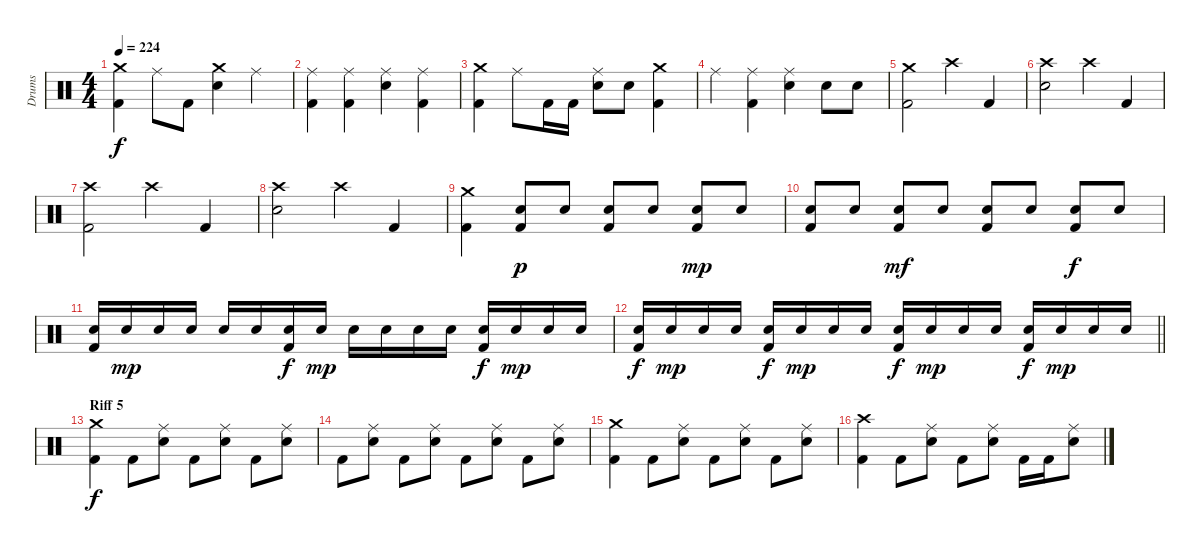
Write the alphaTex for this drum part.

\track ("Drums" "Drums") {instrument percussion}
\staff {score}
\articulation defaults
\ts (4 4)
\tempo 224
\clef neutral
\ks c
("Crash medium (hit)" "Kick (hit) 2").4{dy f} "Ride (middle)".8 "Kick (hit) 2".8 ("Crash medium (hit)" "Electric Snare (hit)").4 "Ride (middle)".4 |
("Ride (middle)" "Kick (hit) 2").4 ("Ride (middle)" "Kick (hit) 2").4 ("Ride (middle)" "Electric Snare (hit)").4 ("Ride (middle)" "Kick (hit) 2").4 |
("Crash medium (hit)" "Kick (hit) 2").4 "Ride (middle)".8 "Kick (hit) 2".16 "Kick (hit) 2".16 ("Electric Snare (hit)" "Ride (middle)").8 "Electric Snare (hit)".8 ("Crash medium (hit)" "Kick (hit) 2").4 |
"Ride (middle)".4 ("Kick (hit) 2" "Ride (middle)").4 ("Electric Snare (hit)" "Ride (middle)").4 "Electric Snare (hit)".8 "Electric Snare (hit)".8 |
("Crash medium (hit)" "Kick (hit) 2").2 "Crash high (hit)".4 "Kick (hit) 2".4 |
("Crash high (hit)" "Electric Snare (hit)").2 "Crash high (hit)".4 "Kick (hit) 2".4 |
("Crash high (hit)" "Kick (hit) 2").2 "Crash high (hit)".4 "Kick (hit) 2".4 |
("Crash high (hit)" "Electric Snare (hit)").2 "Crash high (hit)".4 "Kick (hit) 2".4 |
("Kick (hit) 2" "Crash medium (hit)").4 ("Kick (hit) 2" "Electric Snare (hit)").8{dy p} "Electric Snare (hit)".8 ("Kick (hit) 2" "Electric Snare (hit)").8 "Electric Snare (hit)".8 ("Kick (hit) 2" "Electric Snare (hit)").8{dy mp} "Electric Snare (hit)".8 |
("Kick (hit) 2" "Electric Snare (hit)").8 "Electric Snare (hit)".8 ("Kick (hit) 2" "Electric Snare (hit)").8{dy mf} "Electric Snare (hit)".8 ("Kick (hit) 2" "Electric Snare (hit)").8 "Electric Snare (hit)".8 ("Kick (hit) 2" "Electric Snare (hit)").8{dy f} "Electric Snare (hit)".8 |
("Electric Snare (hit)" "Kick (hit) 2").16 "Electric Snare (hit)".16{dy mp} "Electric Snare (hit)".16 "Electric Snare (hit)".16 "Electric Snare (hit)".16 "Electric Snare (hit)".16 ("Electric Snare (hit)" "Kick (hit) 2").16{dy f} "Electric Snare (hit)".16{dy mp} "Electric Snare (hit)".16 "Electric Snare (hit)".16 "Electric Snare (hit)".16 "Electric Snare (hit)".16 ("Electric Snare (hit)" "Kick (hit) 2").16{dy f} "Electric Snare (hit)".16{dy mp} "Electric Snare (hit)".16 "Electric Snare (hit)".16 |
\barLineRight lightlight
("Electric Snare (hit)" "Kick (hit) 2").16{dy f} "Electric Snare (hit)".16{dy mp} "Electric Snare (hit)".16 "Electric Snare (hit)".16 ("Electric Snare (hit)" "Kick (hit) 2").16{dy f} "Electric Snare (hit)".16{dy mp} "Electric Snare (hit)".16 "Electric Snare (hit)".16 ("Electric Snare (hit)" "Kick (hit) 2").16{dy f} "Electric Snare (hit)".16{dy mp} "Electric Snare (hit)".16 "Electric Snare (hit)".16 ("Electric Snare (hit)" "Kick (hit) 2").16{dy f} "Electric Snare (hit)".16{dy mp} "Electric Snare (hit)".16 "Electric Snare (hit)".16 |
\section ("" "Riff 5")
("Crash medium (hit)" "Kick (hit) 2").4{dy f} "Kick (hit) 2".8 ("Ride (middle)" "Electric Snare (hit)").8 "Kick (hit) 2".8 ("Ride (middle)" "Electric Snare (hit)").8 "Kick (hit) 2".8 ("Ride (middle)" "Electric Snare (hit)").8 |
"Kick (hit) 2".8 ("Ride (middle)" "Electric Snare (hit)").8 "Kick (hit) 2".8 ("Ride (middle)" "Electric Snare (hit)").8 "Kick (hit) 2".8 ("Ride (middle)" "Electric Snare (hit)").8 "Kick (hit) 2".8 ("Ride (middle)" "Electric Snare (hit)").8 |
("Crash medium (hit)" "Kick (hit) 2").4 "Kick (hit) 2".8 ("Ride (middle)" "Electric Snare (hit)").8 "Kick (hit) 2".8 ("Ride (middle)" "Electric Snare (hit)").8 "Kick (hit) 2".8 ("Ride (middle)" "Electric Snare (hit)").8 |
("Crash high (hit)" "Kick (hit) 2").4 "Kick (hit) 2".8 ("Ride (middle)" "Electric Snare (hit)").8 "Kick (hit) 2".8 ("Ride (middle)" "Electric Snare (hit)").8 "Kick (hit) 2".16 "Kick (hit) 2".16 ("Ride (middle)" "Electric Snare (hit)").8
